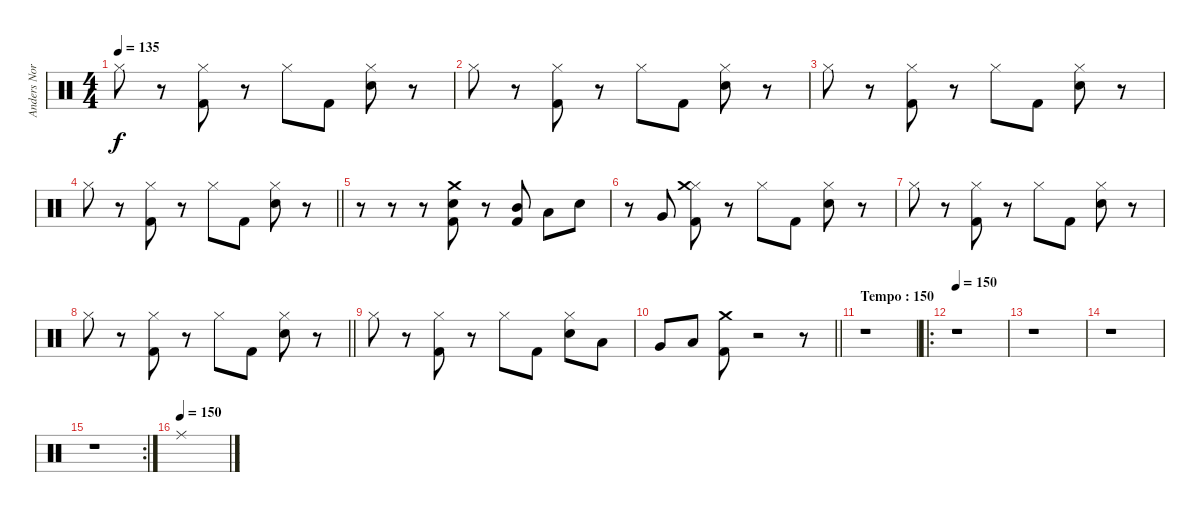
\track ("Anders Nordin" "Anders Nor") {instrument percussion}
\staff {score}
\articulation defaults
\ts (4 4)
\section ("" "")
\tempo 135
\clef neutral
\ks c "Hi-Hat (closed)".8{dy f}
r.8 ("Hi-Hat (closed)" "Kick (hit) 2").8 r.8 "Hi-Hat (closed)".8 "Kick (hit) 2".8 ("Hi-Hat (closed)" "Snare (hit) 2").8 r.8 |
"Hi-Hat (closed)".8 r.8 ("Hi-Hat (closed)" "Kick (hit) 2").8 r.8 "Hi-Hat (closed)".8 "Kick (hit) 2".8 ("Hi-Hat (closed)" "Snare (hit) 2").8 r.8 |
"Hi-Hat (closed)".8 r.8 ("Hi-Hat (closed)" "Kick (hit) 2").8 r.8 "Hi-Hat (closed)".8 "Kick (hit) 2".8 ("Hi-Hat (closed)" "Snare (hit) 2").8 r.8 |
\barLineRight lightlight "Hi-Hat (closed)".8
r.8 ("Hi-Hat (closed)" "Kick (hit) 2").8 r.8 "Hi-Hat (closed)".8 "Kick (hit) 2".8 ("Hi-Hat (closed)" "Snare (hit) 2").8 r.8 |
\section ("" "")
r.8 r.8 r.8 ("Crash medium (hit)" "Kick (hit) 2" "Snare (hit) 2").8 r.8 ("Mid Tom (hit)" "Kick (hit) 2").8 "Low Tom (hit)".8 "Snare (hit) 2".8 |
r.8 "Very Low Tom (hit)".8 ("Hi-Hat (closed)" "Crash medium (hit)" "Kick (hit) 2").8 r.8 "Hi-Hat (closed)".8 "Kick (hit) 2".8 ("Hi-Hat (closed)" "Snare (hit) 2").8 r.8 |
"Hi-Hat (closed)".8 r.8 ("Hi-Hat (closed)" "Kick (hit) 2").8 r.8 "Hi-Hat (closed)".8 "Kick (hit) 2".8 ("Hi-Hat (closed)" "Snare (hit) 2").8 r.8 |
\barLineRight lightlight "Hi-Hat (closed)".8
r.8 ("Hi-Hat (closed)" "Kick (hit) 2").8 r.8 "Hi-Hat (closed)".8 "Kick (hit) 2".8 ("Hi-Hat (closed)" "Snare (hit) 2").8 r.8 |
"Hi-Hat (closed)".8 r.8 ("Hi-Hat (closed)" "Kick (hit) 2").8 r.8 "Hi-Hat (closed)".8 "Kick (hit) 2".8 ("Hi-Hat (closed)" "Snare (hit) 2").8 "Low Tom (hit)".8 |
\barLineRight lightlight "Very Low Tom (hit)".8 "Low Floor Tom (hit)".8
("Crash medium (hit)" "Kick (hit) 2").8 r.2 r.8 |
\section ("" "Tempo : 150")
r.1 |
\ro
\tempo 150
r.1 |
r.1 |
r.1 |
\rc 2
r.1 |
\tempo (150)
"Ride (middle)".1
